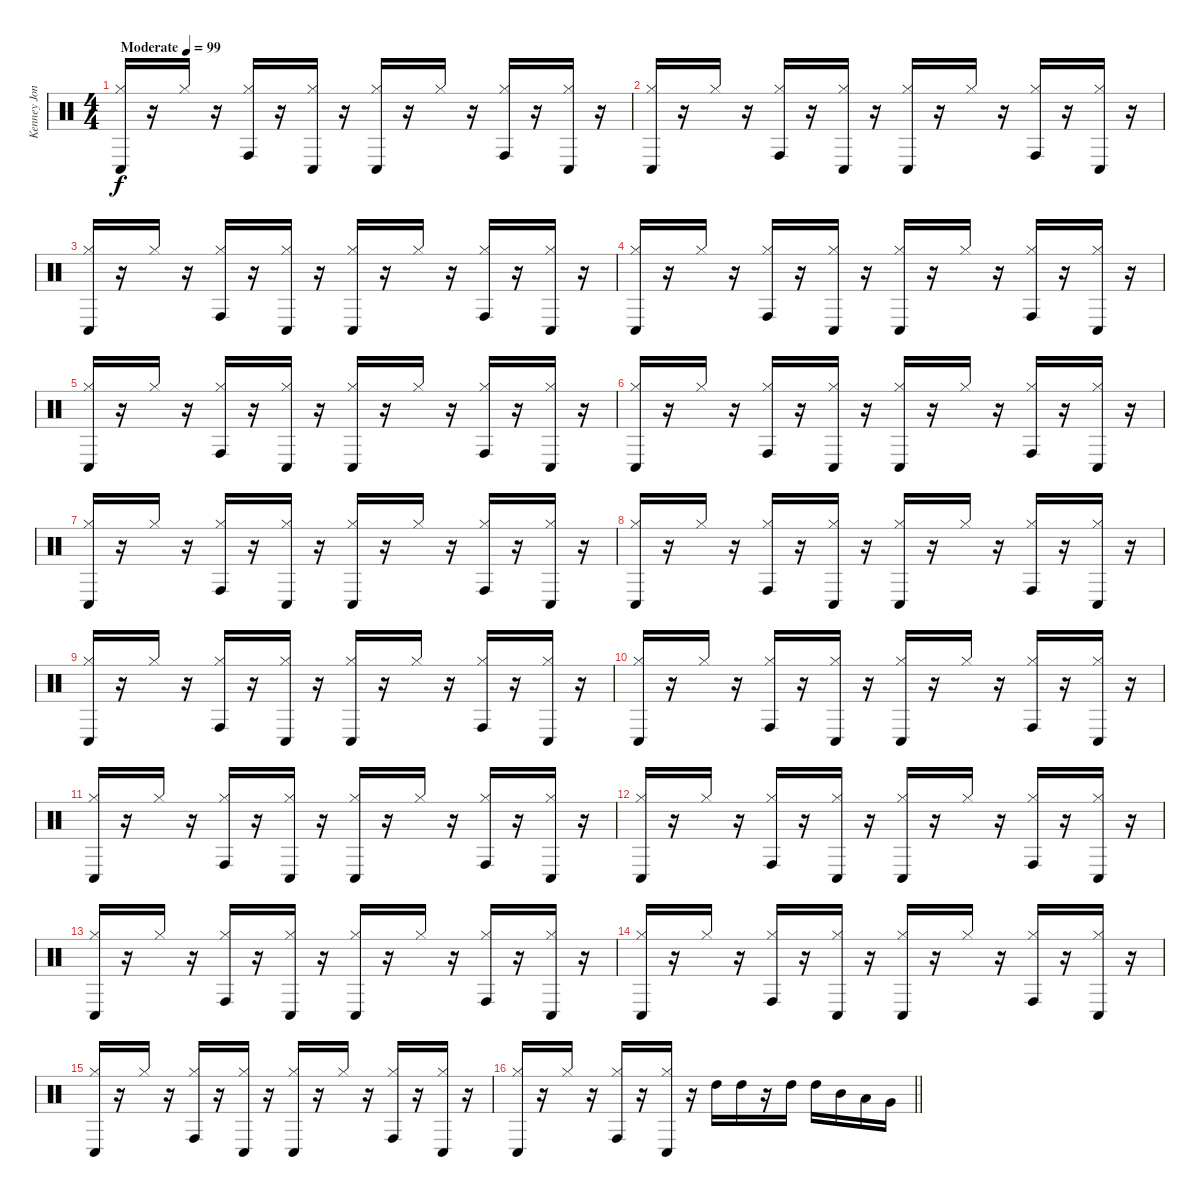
\track ("Kenney Jones" "Kenney Jon") {instrument percussion}
\staff {score}
\articulation defaults
\ts (4 4)
\tempo (99 "Moderate")
\clef neutral
\ks c
("Hi-Hat (closed)" "Conga low (hit)").16{dy f} r.16 "Hi-Hat (closed)".16 r.16 ("Hi-Hat (closed)" "Conga high (hit)").16 r.16 ("Hi-Hat (closed)" "Conga low (hit)").16 r.16 ("Hi-Hat (closed)" "Conga low (hit)").16 r.16 "Hi-Hat (closed)".16 r.16 ("Hi-Hat (closed)" "Conga high (hit)").16 r.16 ("Hi-Hat (closed)" "Conga low (hit)").16 r.16 |
("Hi-Hat (closed)" "Conga low (hit)").16 r.16 "Hi-Hat (closed)".16 r.16 ("Hi-Hat (closed)" "Conga high (hit)").16 r.16 ("Hi-Hat (closed)" "Conga low (hit)").16 r.16 ("Hi-Hat (closed)" "Conga low (hit)").16 r.16 "Hi-Hat (closed)".16 r.16 ("Hi-Hat (closed)" "Conga high (hit)").16 r.16 ("Hi-Hat (closed)" "Conga low (hit)").16 r.16 |
("Hi-Hat (closed)" "Conga low (hit)").16 r.16 "Hi-Hat (closed)".16 r.16 ("Hi-Hat (closed)" "Conga high (hit)").16 r.16 ("Hi-Hat (closed)" "Conga low (hit)").16 r.16 ("Hi-Hat (closed)" "Conga low (hit)").16 r.16 "Hi-Hat (closed)".16 r.16 ("Hi-Hat (closed)" "Conga high (hit)").16 r.16 ("Hi-Hat (closed)" "Conga low (hit)").16 r.16 |
("Hi-Hat (closed)" "Conga low (hit)").16 r.16 "Hi-Hat (closed)".16 r.16 ("Hi-Hat (closed)" "Conga high (hit)").16 r.16 ("Hi-Hat (closed)" "Conga low (hit)").16 r.16 ("Hi-Hat (closed)" "Conga low (hit)").16 r.16 "Hi-Hat (closed)".16 r.16 ("Hi-Hat (closed)" "Conga high (hit)").16 r.16 ("Hi-Hat (closed)" "Conga low (hit)").16 r.16 |
("Hi-Hat (closed)" "Conga low (hit)").16 r.16 "Hi-Hat (closed)".16 r.16 ("Hi-Hat (closed)" "Conga high (hit)").16 r.16 ("Hi-Hat (closed)" "Conga low (hit)").16 r.16 ("Hi-Hat (closed)" "Conga low (hit)").16 r.16 "Hi-Hat (closed)".16 r.16 ("Hi-Hat (closed)" "Conga high (hit)").16 r.16 ("Hi-Hat (closed)" "Conga low (hit)").16 r.16 |
("Hi-Hat (closed)" "Conga low (hit)").16 r.16 "Hi-Hat (closed)".16 r.16 ("Hi-Hat (closed)" "Conga high (hit)").16 r.16 ("Hi-Hat (closed)" "Conga low (hit)").16 r.16 ("Hi-Hat (closed)" "Conga low (hit)").16 r.16 "Hi-Hat (closed)".16 r.16 ("Hi-Hat (closed)" "Conga high (hit)").16 r.16 ("Hi-Hat (closed)" "Conga low (hit)").16 r.16 |
("Hi-Hat (closed)" "Conga low (hit)").16 r.16 "Hi-Hat (closed)".16 r.16 ("Hi-Hat (closed)" "Conga high (hit)").16 r.16 ("Hi-Hat (closed)" "Conga low (hit)").16 r.16 ("Hi-Hat (closed)" "Conga low (hit)").16 r.16 "Hi-Hat (closed)".16 r.16 ("Hi-Hat (closed)" "Conga high (hit)").16 r.16 ("Hi-Hat (closed)" "Conga low (hit)").16 r.16 |
("Hi-Hat (closed)" "Conga low (hit)").16 r.16 "Hi-Hat (closed)".16 r.16 ("Hi-Hat (closed)" "Conga high (hit)").16 r.16 ("Hi-Hat (closed)" "Conga low (hit)").16 r.16 ("Hi-Hat (closed)" "Conga low (hit)").16 r.16 "Hi-Hat (closed)".16 r.16 ("Hi-Hat (closed)" "Conga high (hit)").16 r.16 ("Hi-Hat (closed)" "Conga low (hit)").16 r.16 |
("Hi-Hat (closed)" "Conga low (hit)").16 r.16 "Hi-Hat (closed)".16 r.16 ("Hi-Hat (closed)" "Conga high (hit)").16 r.16 ("Hi-Hat (closed)" "Conga low (hit)").16 r.16 ("Hi-Hat (closed)" "Conga low (hit)").16 r.16 "Hi-Hat (closed)".16 r.16 ("Hi-Hat (closed)" "Conga high (hit)").16 r.16 ("Hi-Hat (closed)" "Conga low (hit)").16 r.16 |
("Hi-Hat (closed)" "Conga low (hit)").16 r.16 "Hi-Hat (closed)".16 r.16 ("Hi-Hat (closed)" "Conga high (hit)").16 r.16 ("Hi-Hat (closed)" "Conga low (hit)").16 r.16 ("Hi-Hat (closed)" "Conga low (hit)").16 r.16 "Hi-Hat (closed)".16 r.16 ("Hi-Hat (closed)" "Conga high (hit)").16 r.16 ("Hi-Hat (closed)" "Conga low (hit)").16 r.16 |
("Hi-Hat (closed)" "Conga low (hit)").16 r.16 "Hi-Hat (closed)".16 r.16 ("Hi-Hat (closed)" "Conga high (hit)").16 r.16 ("Hi-Hat (closed)" "Conga low (hit)").16 r.16 ("Hi-Hat (closed)" "Conga low (hit)").16 r.16 "Hi-Hat (closed)".16 r.16 ("Hi-Hat (closed)" "Conga high (hit)").16 r.16 ("Hi-Hat (closed)" "Conga low (hit)").16 r.16 |
("Hi-Hat (closed)" "Conga low (hit)").16 r.16 "Hi-Hat (closed)".16 r.16 ("Hi-Hat (closed)" "Conga high (hit)").16 r.16 ("Hi-Hat (closed)" "Conga low (hit)").16 r.16 ("Hi-Hat (closed)" "Conga low (hit)").16 r.16 "Hi-Hat (closed)".16 r.16 ("Hi-Hat (closed)" "Conga high (hit)").16 r.16 ("Hi-Hat (closed)" "Conga low (hit)").16 r.16 |
("Hi-Hat (closed)" "Conga low (hit)").16 r.16 "Hi-Hat (closed)".16 r.16 ("Hi-Hat (closed)" "Conga high (hit)").16 r.16 ("Hi-Hat (closed)" "Conga low (hit)").16 r.16 ("Hi-Hat (closed)" "Conga low (hit)").16 r.16 "Hi-Hat (closed)".16 r.16 ("Hi-Hat (closed)" "Conga high (hit)").16 r.16 ("Hi-Hat (closed)" "Conga low (hit)").16 r.16 |
("Hi-Hat (closed)" "Conga low (hit)").16 r.16 "Hi-Hat (closed)".16 r.16 ("Hi-Hat (closed)" "Conga high (hit)").16 r.16 ("Hi-Hat (closed)" "Conga low (hit)").16 r.16 ("Hi-Hat (closed)" "Conga low (hit)").16 r.16 "Hi-Hat (closed)".16 r.16 ("Hi-Hat (closed)" "Conga high (hit)").16 r.16 ("Hi-Hat (closed)" "Conga low (hit)").16 r.16 |
("Hi-Hat (closed)" "Conga low (hit)").16 r.16 "Hi-Hat (closed)".16 r.16 ("Hi-Hat (closed)" "Conga high (hit)").16 r.16 ("Hi-Hat (closed)" "Conga low (hit)").16 r.16 ("Hi-Hat (closed)" "Conga low (hit)").16 r.16 "Hi-Hat (closed)".16 r.16 ("Hi-Hat (closed)" "Conga high (hit)").16 r.16 ("Hi-Hat (closed)" "Conga low (hit)").16 r.16 |
\barLineRight lightlight
("Hi-Hat (closed)" "Conga low (hit)").16 r.16 "Hi-Hat (closed)".16 r.16 ("Hi-Hat (closed)" "Conga high (hit)").16 r.16 ("Hi-Hat (closed)" "Conga low (hit)").16 r.16 "High Tom (hit)".16 "High Tom (hit)".16 r.16 "High Tom (hit)".16 "High Tom (hit)".16 "Mid Tom (hit)".16 "Low Tom (hit)".16 "Very Low Tom (hit)".16
